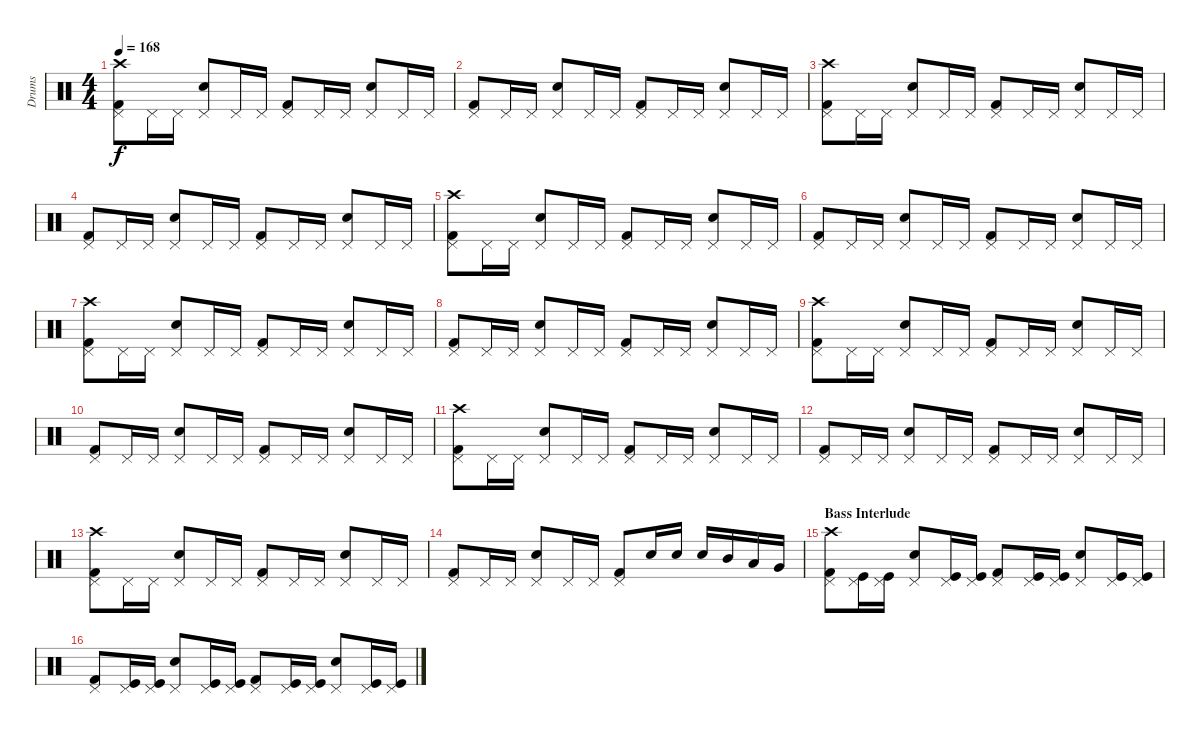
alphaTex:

\track ("Drums" "Drums") {instrument percussion}
\staff {score}
\articulation defaults
\ts (4 4)
\tempo 168
\clef neutral
\ks c
("Kick (hit) 2" "Pedal Hi-Hat (hit)" "Crash high (hit)").8{dy f} "Pedal Hi-Hat (hit)".16 "Pedal Hi-Hat (hit)".16 ("Snare (hit) 2" "Pedal Hi-Hat (hit)").8 "Pedal Hi-Hat (hit)".16 "Pedal Hi-Hat (hit)".16 ("Kick (hit) 2" "Pedal Hi-Hat (hit)").8 "Pedal Hi-Hat (hit)".16 "Pedal Hi-Hat (hit)".16 ("Snare (hit) 2" "Pedal Hi-Hat (hit)").8 "Pedal Hi-Hat (hit)".16 "Pedal Hi-Hat (hit)".16 |
("Kick (hit) 2" "Pedal Hi-Hat (hit)").8 "Pedal Hi-Hat (hit)".16 "Pedal Hi-Hat (hit)".16 ("Snare (hit) 2" "Pedal Hi-Hat (hit)").8 "Pedal Hi-Hat (hit)".16 "Pedal Hi-Hat (hit)".16 ("Kick (hit) 2" "Pedal Hi-Hat (hit)").8 "Pedal Hi-Hat (hit)".16 "Pedal Hi-Hat (hit)".16 ("Snare (hit) 2" "Pedal Hi-Hat (hit)").8 "Pedal Hi-Hat (hit)".16 "Pedal Hi-Hat (hit)".16 |
("Kick (hit) 2" "Pedal Hi-Hat (hit)" "Crash high (hit)").8 "Pedal Hi-Hat (hit)".16 "Pedal Hi-Hat (hit)".16 ("Snare (hit) 2" "Pedal Hi-Hat (hit)").8 "Pedal Hi-Hat (hit)".16 "Pedal Hi-Hat (hit)".16 ("Kick (hit) 2" "Pedal Hi-Hat (hit)").8 "Pedal Hi-Hat (hit)".16 "Pedal Hi-Hat (hit)".16 ("Snare (hit) 2" "Pedal Hi-Hat (hit)").8 "Pedal Hi-Hat (hit)".16 "Pedal Hi-Hat (hit)".16 |
("Kick (hit) 2" "Pedal Hi-Hat (hit)").8 "Pedal Hi-Hat (hit)".16 "Pedal Hi-Hat (hit)".16 ("Snare (hit) 2" "Pedal Hi-Hat (hit)").8 "Pedal Hi-Hat (hit)".16 "Pedal Hi-Hat (hit)".16 ("Kick (hit) 2" "Pedal Hi-Hat (hit)").8 "Pedal Hi-Hat (hit)".16 "Pedal Hi-Hat (hit)".16 ("Snare (hit) 2" "Pedal Hi-Hat (hit)").8 "Pedal Hi-Hat (hit)".16 "Pedal Hi-Hat (hit)".16 |
("Kick (hit) 2" "Pedal Hi-Hat (hit)" "Crash high (hit)").8 "Pedal Hi-Hat (hit)".16 "Pedal Hi-Hat (hit)".16 ("Snare (hit) 2" "Pedal Hi-Hat (hit)").8 "Pedal Hi-Hat (hit)".16 "Pedal Hi-Hat (hit)".16 ("Kick (hit) 2" "Pedal Hi-Hat (hit)").8 "Pedal Hi-Hat (hit)".16 "Pedal Hi-Hat (hit)".16 ("Snare (hit) 2" "Pedal Hi-Hat (hit)").8 "Pedal Hi-Hat (hit)".16 "Pedal Hi-Hat (hit)".16 |
("Kick (hit) 2" "Pedal Hi-Hat (hit)").8 "Pedal Hi-Hat (hit)".16 "Pedal Hi-Hat (hit)".16 ("Snare (hit) 2" "Pedal Hi-Hat (hit)").8 "Pedal Hi-Hat (hit)".16 "Pedal Hi-Hat (hit)".16 ("Kick (hit) 2" "Pedal Hi-Hat (hit)").8 "Pedal Hi-Hat (hit)".16 "Pedal Hi-Hat (hit)".16 ("Snare (hit) 2" "Pedal Hi-Hat (hit)").8 "Pedal Hi-Hat (hit)".16 "Pedal Hi-Hat (hit)".16 |
("Kick (hit) 2" "Pedal Hi-Hat (hit)" "Crash high (hit)").8 "Pedal Hi-Hat (hit)".16 "Pedal Hi-Hat (hit)".16 ("Snare (hit) 2" "Pedal Hi-Hat (hit)").8 "Pedal Hi-Hat (hit)".16 "Pedal Hi-Hat (hit)".16 ("Kick (hit) 2" "Pedal Hi-Hat (hit)").8 "Pedal Hi-Hat (hit)".16 "Pedal Hi-Hat (hit)".16 ("Snare (hit) 2" "Pedal Hi-Hat (hit)").8 "Pedal Hi-Hat (hit)".16 "Pedal Hi-Hat (hit)".16 |
("Kick (hit) 2" "Pedal Hi-Hat (hit)").8 "Pedal Hi-Hat (hit)".16 "Pedal Hi-Hat (hit)".16 ("Snare (hit) 2" "Pedal Hi-Hat (hit)").8 "Pedal Hi-Hat (hit)".16 "Pedal Hi-Hat (hit)".16 ("Kick (hit) 2" "Pedal Hi-Hat (hit)").8 "Pedal Hi-Hat (hit)".16 "Pedal Hi-Hat (hit)".16 ("Snare (hit) 2" "Pedal Hi-Hat (hit)").8 "Pedal Hi-Hat (hit)".16 "Pedal Hi-Hat (hit)".16 |
("Kick (hit) 2" "Pedal Hi-Hat (hit)" "Crash high (hit)").8 "Pedal Hi-Hat (hit)".16 "Pedal Hi-Hat (hit)".16 ("Snare (hit) 2" "Pedal Hi-Hat (hit)").8 "Pedal Hi-Hat (hit)".16 "Pedal Hi-Hat (hit)".16 ("Kick (hit) 2" "Pedal Hi-Hat (hit)").8 "Pedal Hi-Hat (hit)".16 "Pedal Hi-Hat (hit)".16 ("Snare (hit) 2" "Pedal Hi-Hat (hit)").8 "Pedal Hi-Hat (hit)".16 "Pedal Hi-Hat (hit)".16 |
("Kick (hit) 2" "Pedal Hi-Hat (hit)").8 "Pedal Hi-Hat (hit)".16 "Pedal Hi-Hat (hit)".16 ("Snare (hit) 2" "Pedal Hi-Hat (hit)").8 "Pedal Hi-Hat (hit)".16 "Pedal Hi-Hat (hit)".16 ("Kick (hit) 2" "Pedal Hi-Hat (hit)").8 "Pedal Hi-Hat (hit)".16 "Pedal Hi-Hat (hit)".16 ("Snare (hit) 2" "Pedal Hi-Hat (hit)").8 "Pedal Hi-Hat (hit)".16 "Pedal Hi-Hat (hit)".16 |
("Kick (hit) 2" "Pedal Hi-Hat (hit)" "Crash high (hit)").8 "Pedal Hi-Hat (hit)".16 "Pedal Hi-Hat (hit)".16 ("Snare (hit) 2" "Pedal Hi-Hat (hit)").8 "Pedal Hi-Hat (hit)".16 "Pedal Hi-Hat (hit)".16 ("Kick (hit) 2" "Pedal Hi-Hat (hit)").8 "Pedal Hi-Hat (hit)".16 "Pedal Hi-Hat (hit)".16 ("Snare (hit) 2" "Pedal Hi-Hat (hit)").8 "Pedal Hi-Hat (hit)".16 "Pedal Hi-Hat (hit)".16 |
("Kick (hit) 2" "Pedal Hi-Hat (hit)").8 "Pedal Hi-Hat (hit)".16 "Pedal Hi-Hat (hit)".16 ("Snare (hit) 2" "Pedal Hi-Hat (hit)").8 "Pedal Hi-Hat (hit)".16 "Pedal Hi-Hat (hit)".16 ("Kick (hit) 2" "Pedal Hi-Hat (hit)").8 "Pedal Hi-Hat (hit)".16 "Pedal Hi-Hat (hit)".16 ("Snare (hit) 2" "Pedal Hi-Hat (hit)").8 "Pedal Hi-Hat (hit)".16 "Pedal Hi-Hat (hit)".16 |
("Kick (hit) 2" "Pedal Hi-Hat (hit)" "Crash high (hit)").8 "Pedal Hi-Hat (hit)".16 "Pedal Hi-Hat (hit)".16 ("Snare (hit) 2" "Pedal Hi-Hat (hit)").8 "Pedal Hi-Hat (hit)".16 "Pedal Hi-Hat (hit)".16 ("Kick (hit) 2" "Pedal Hi-Hat (hit)").8 "Pedal Hi-Hat (hit)".16 "Pedal Hi-Hat (hit)".16 ("Snare (hit) 2" "Pedal Hi-Hat (hit)").8 "Pedal Hi-Hat (hit)".16 "Pedal Hi-Hat (hit)".16 |
("Kick (hit) 2" "Pedal Hi-Hat (hit)").8 "Pedal Hi-Hat (hit)".16 "Pedal Hi-Hat (hit)".16 ("Snare (hit) 2" "Pedal Hi-Hat (hit)").8 "Pedal Hi-Hat (hit)".16 "Pedal Hi-Hat (hit)".16 ("Kick (hit) 2" "Pedal Hi-Hat (hit)").8 "Snare (hit) 2".16 "Snare (hit) 2".16 "Snare (hit) 2".16 "Mid Tom (hit)".16 "Low Tom (hit)".16 "Very Low Tom (hit)".16 |
\section ("" "Bass Interlude")
("Kick (hit) 2" "Pedal Hi-Hat (hit)" "Crash high (hit)").8 ("Kick (hit)" "Pedal Hi-Hat (hit)").16 ("Kick (hit)" "Pedal Hi-Hat (hit)").16 ("Snare (hit) 2" "Pedal Hi-Hat (hit)").8 ("Kick (hit)" "Pedal Hi-Hat (hit)").16 ("Kick (hit)" "Pedal Hi-Hat (hit)").16 ("Kick (hit) 2" "Pedal Hi-Hat (hit)").8 ("Kick (hit)" "Pedal Hi-Hat (hit)").16 ("Kick (hit)" "Pedal Hi-Hat (hit)").16 ("Snare (hit) 2" "Pedal Hi-Hat (hit)").8 ("Kick (hit)" "Pedal Hi-Hat (hit)").16 ("Kick (hit)" "Pedal Hi-Hat (hit)").16 |
("Kick (hit) 2" "Pedal Hi-Hat (hit)").8 ("Kick (hit)" "Pedal Hi-Hat (hit)").16 ("Kick (hit)" "Pedal Hi-Hat (hit)").16 ("Snare (hit) 2" "Pedal Hi-Hat (hit)").8 ("Kick (hit)" "Pedal Hi-Hat (hit)").16 ("Kick (hit)" "Pedal Hi-Hat (hit)").16 ("Kick (hit) 2" "Pedal Hi-Hat (hit)").8 ("Kick (hit)" "Pedal Hi-Hat (hit)").16 ("Kick (hit)" "Pedal Hi-Hat (hit)").16 ("Snare (hit) 2" "Pedal Hi-Hat (hit)").8 ("Kick (hit)" "Pedal Hi-Hat (hit)").16 ("Kick (hit)" "Pedal Hi-Hat (hit)").16
